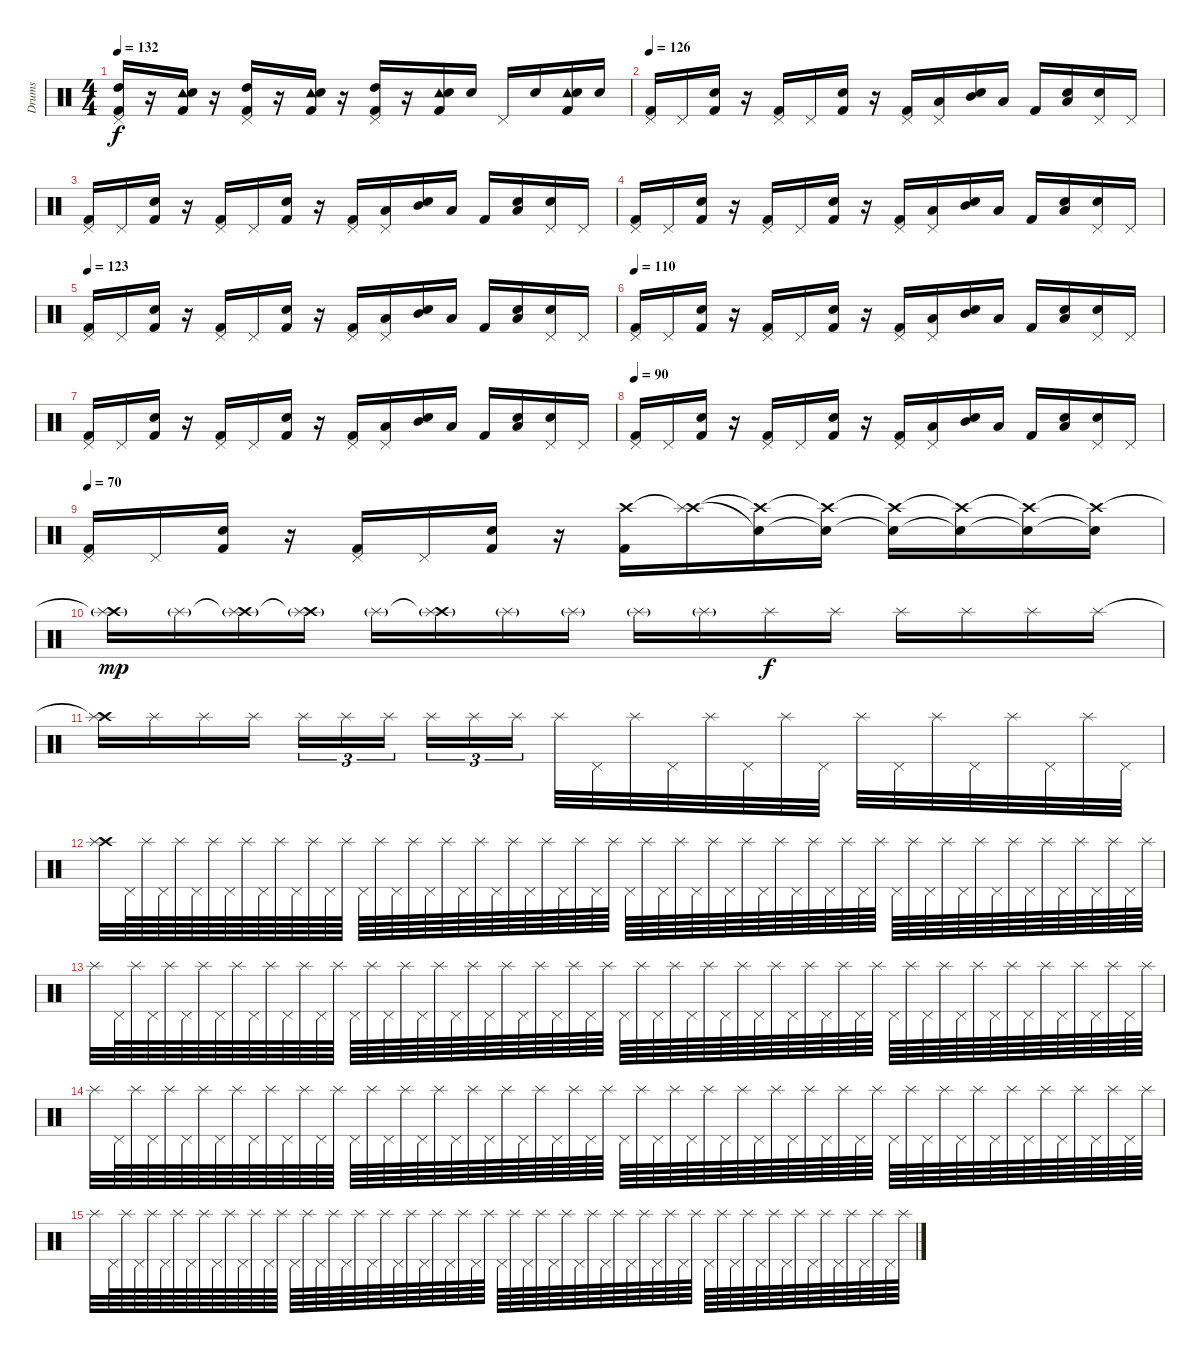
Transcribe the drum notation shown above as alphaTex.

\track ("Drums" "Drums") {instrument percussion}
\staff {score}
\articulation defaults
\ts (4 4)
\tempo 132
\clef neutral
\ks c
("Pedal Hi-Hat (hit)" "Kick (hit) 2" "High Tom (hit)").16{dy f} r.16 ("Tambourine (hit)" "Kick (hit) 2" "Snare (hit) 2").16 r.16 ("Pedal Hi-Hat (hit)" "Kick (hit) 2" "High Tom (hit)").16 r.16 ("Tambourine (hit)" "Kick (hit) 2" "Snare (hit) 2").16 r.16 ("Pedal Hi-Hat (hit)" "Kick (hit) 2" "High Tom (hit)").16 r.16 ("Tambourine (hit)" "Kick (hit) 2" "Snare (hit) 2").16 "Snare (hit) 2".16 "Pedal Hi-Hat (hit)".16 "Snare (hit) 2".16 ("Tambourine (hit)" "Kick (hit) 2" "Snare (hit) 2").16 "Snare (hit) 2".16 |
\tempo 126
("Pedal Hi-Hat (hit)" "Kick (hit) 2").16 "Pedal Hi-Hat (hit)".16 ("Snare (hit) 2" "Kick (hit) 2").16 r.16 ("Pedal Hi-Hat (hit)" "Kick (hit) 2").16 "Pedal Hi-Hat (hit)".16 ("Snare (hit) 2" "Kick (hit) 2").16 r.16 ("Pedal Hi-Hat (hit)" "Kick (hit) 2").16 ("Pedal Hi-Hat (hit)" "Low Tom (hit)").16 ("Snare (hit) 2" "Mid Tom (hit)").16 "Low Tom (hit)".16 "Kick (hit) 2".16 ("Snare (hit) 2" "Low Tom (hit)").16 ("Pedal Hi-Hat (hit)" "Snare (hit) 2").16 "Pedal Hi-Hat (hit)".16 |
("Pedal Hi-Hat (hit)" "Kick (hit) 2").16 "Pedal Hi-Hat (hit)".16 ("Snare (hit) 2" "Kick (hit) 2").16 r.16 ("Pedal Hi-Hat (hit)" "Kick (hit) 2").16 "Pedal Hi-Hat (hit)".16 ("Snare (hit) 2" "Kick (hit) 2").16 r.16 ("Pedal Hi-Hat (hit)" "Kick (hit) 2").16 ("Pedal Hi-Hat (hit)" "Low Tom (hit)").16 ("Snare (hit) 2" "Mid Tom (hit)").16 "Low Tom (hit)".16 "Kick (hit) 2".16 ("Snare (hit) 2" "Low Tom (hit)").16 ("Pedal Hi-Hat (hit)" "Snare (hit) 2").16 "Pedal Hi-Hat (hit)".16 |
("Pedal Hi-Hat (hit)" "Kick (hit) 2").16 "Pedal Hi-Hat (hit)".16 ("Snare (hit) 2" "Kick (hit) 2").16 r.16 ("Pedal Hi-Hat (hit)" "Kick (hit) 2").16 "Pedal Hi-Hat (hit)".16 ("Snare (hit) 2" "Kick (hit) 2").16 r.16 ("Pedal Hi-Hat (hit)" "Kick (hit) 2").16 ("Pedal Hi-Hat (hit)" "Low Tom (hit)").16 ("Snare (hit) 2" "Mid Tom (hit)").16 "Low Tom (hit)".16 "Kick (hit) 2".16 ("Snare (hit) 2" "Low Tom (hit)").16 ("Pedal Hi-Hat (hit)" "Snare (hit) 2").16 "Pedal Hi-Hat (hit)".16 |
\tempo 123
("Pedal Hi-Hat (hit)" "Kick (hit) 2").16 "Pedal Hi-Hat (hit)".16 ("Snare (hit) 2" "Kick (hit) 2").16 r.16 ("Pedal Hi-Hat (hit)" "Kick (hit) 2").16 "Pedal Hi-Hat (hit)".16 ("Snare (hit) 2" "Kick (hit) 2").16 r.16 ("Pedal Hi-Hat (hit)" "Kick (hit) 2").16 ("Pedal Hi-Hat (hit)" "Low Tom (hit)").16 ("Snare (hit) 2" "Mid Tom (hit)").16 "Low Tom (hit)".16 "Kick (hit) 2".16 ("Snare (hit) 2" "Low Tom (hit)").16 ("Pedal Hi-Hat (hit)" "Snare (hit) 2").16 "Pedal Hi-Hat (hit)".16 |
\tempo 110
("Pedal Hi-Hat (hit)" "Kick (hit) 2").16 "Pedal Hi-Hat (hit)".16 ("Snare (hit) 2" "Kick (hit) 2").16 r.16 ("Pedal Hi-Hat (hit)" "Kick (hit) 2").16 "Pedal Hi-Hat (hit)".16 ("Snare (hit) 2" "Kick (hit) 2").16 r.16 ("Pedal Hi-Hat (hit)" "Kick (hit) 2").16 ("Pedal Hi-Hat (hit)" "Low Tom (hit)").16 ("Snare (hit) 2" "Mid Tom (hit)").16 "Low Tom (hit)".16 "Kick (hit) 2".16 ("Snare (hit) 2" "Low Tom (hit)").16 ("Pedal Hi-Hat (hit)" "Snare (hit) 2").16 "Pedal Hi-Hat (hit)".16 |
("Pedal Hi-Hat (hit)" "Kick (hit) 2").16 "Pedal Hi-Hat (hit)".16 ("Snare (hit) 2" "Kick (hit) 2").16 r.16 ("Pedal Hi-Hat (hit)" "Kick (hit) 2").16 "Pedal Hi-Hat (hit)".16 ("Snare (hit) 2" "Kick (hit) 2").16 r.16 ("Pedal Hi-Hat (hit)" "Kick (hit) 2").16 ("Pedal Hi-Hat (hit)" "Low Tom (hit)").16 ("Snare (hit) 2" "Mid Tom (hit)").16 "Low Tom (hit)".16 "Kick (hit) 2".16 ("Snare (hit) 2" "Low Tom (hit)").16 ("Pedal Hi-Hat (hit)" "Snare (hit) 2").16 "Pedal Hi-Hat (hit)".16 |
\tempo 90
("Pedal Hi-Hat (hit)" "Kick (hit) 2").16 "Pedal Hi-Hat (hit)".16 ("Snare (hit) 2" "Kick (hit) 2").16 r.16 ("Pedal Hi-Hat (hit)" "Kick (hit) 2").16 "Pedal Hi-Hat (hit)".16 ("Snare (hit) 2" "Kick (hit) 2").16 r.16 ("Pedal Hi-Hat (hit)" "Kick (hit) 2").16 ("Pedal Hi-Hat (hit)" "Low Tom (hit)").16 ("Snare (hit) 2" "Mid Tom (hit)").16 "Low Tom (hit)".16 "Kick (hit) 2".16 ("Snare (hit) 2" "Low Tom (hit)").16 ("Pedal Hi-Hat (hit)" "Snare (hit) 2").16 "Pedal Hi-Hat (hit)".16 |
\tempo 70
("Pedal Hi-Hat (hit)" "Kick (hit) 2").16 "Pedal Hi-Hat (hit)".16 ("Snare (hit) 2" "Kick (hit) 2").16 r.16 ("Pedal Hi-Hat (hit)" "Kick (hit) 2").16 "Pedal Hi-Hat (hit)".16 ("Snare (hit) 2" "Kick (hit) 2").16 r.16 ("Crash high (hit)" "Kick (hit) 2").16 ("Crash high (hit)"{t} "Splash (hit)").16 ("Crash high (hit)"{t} "Snare (hit)"{t}).16 ("Crash high (hit)"{t} "Snare (hit)"{t}).16 ("Crash high (hit)"{t} "Snare (hit)"{t}).16 ("Crash high (hit)"{t} "Snare (hit)"{t}).16 ("Crash high (hit)"{t} "Snare (hit)"{t}).16 ("Crash high (hit)"{t} "Snare (hit)"{t}).16 |
("Crash high (hit)"{t} "Splash (hit)"{g}).16{dy mp} "Splash (hit)"{g}.16 ("Crash high (hit)"{t} "Splash (hit)"{g}).16 ("Crash high (hit)"{t} "Splash (hit)"{g}).16 "Splash (hit)"{g}.16 ("Crash high (hit)"{t} "Splash (hit)"{g}).16 "Splash (hit)"{g}.16 "Splash (hit)"{g}.16 "Splash (hit)"{g}.16 "Splash (hit)"{g}.16 "Splash (hit)".16{dy f} "Splash (hit)".16 "Splash (hit)".16 "Splash (hit)".16 "Splash (hit)".16 "Splash (hit)".16 |
("Crash high (hit)"{t} "Splash (hit)").16 "Splash (hit)".16 "Splash (hit)".16 "Splash (hit)".16 "Splash (hit)".16{tu (3 2)} "Splash (hit)".16{tu (3 2)} "Splash (hit)".16{tu (3 2)} "Splash (hit)".16{tu (3 2)} "Splash (hit)".16{tu (3 2)} "Splash (hit)".16{tu (3 2)} "Splash (hit)".32 "Pedal Hi-Hat (hit)".32 "Splash (hit)".32 "Pedal Hi-Hat (hit)".32 "Splash (hit)".32 "Pedal Hi-Hat (hit)".32 "Splash (hit)".32 "Pedal Hi-Hat (hit)".32 "Splash (hit)".32 "Pedal Hi-Hat (hit)".32 "Splash (hit)".32 "Pedal Hi-Hat (hit)".32 "Splash (hit)".32 "Pedal Hi-Hat (hit)".32 "Splash (hit)".32 "Pedal Hi-Hat (hit)".32 |
("Crash high (hit)" "Splash (hit)").32{volume 16} "Pedal Hi-Hat (hit)".64 "Splash (hit)".64 "Pedal Hi-Hat (hit)".64 "Splash (hit)".64 "Pedal Hi-Hat (hit)".64 "Splash (hit)".64 "Pedal Hi-Hat (hit)".64 "Splash (hit)".64 "Pedal Hi-Hat (hit)".64 "Splash (hit)".64 "Pedal Hi-Hat (hit)".64 "Splash (hit)".64 "Pedal Hi-Hat (hit)".64 "Splash (hit)".64 "Pedal Hi-Hat (hit)".64 "Splash (hit)".64 "Pedal Hi-Hat (hit)".64 "Splash (hit)".64 "Pedal Hi-Hat (hit)".64 "Splash (hit)".64 "Pedal Hi-Hat (hit)".64 "Splash (hit)".64 "Pedal Hi-Hat (hit)".64 "Splash (hit)".64 "Pedal Hi-Hat (hit)".64 "Splash (hit)".64 "Pedal Hi-Hat (hit)".64 "Splash (hit)".64 "Pedal Hi-Hat (hit)".64 "Splash (hit)".64 "Pedal Hi-Hat (hit)".64 "Splash (hit)".64 "Pedal Hi-Hat (hit)".64 "Splash (hit)".64 "Pedal Hi-Hat (hit)".64 "Splash (hit)".64 "Pedal Hi-Hat (hit)".64 "Splash (hit)".64 "Pedal Hi-Hat (hit)".64 "Splash (hit)".64 "Pedal Hi-Hat (hit)".64 "Splash (hit)".64 "Pedal Hi-Hat (hit)".64 "Splash (hit)".64 "Pedal Hi-Hat (hit)".64 "Splash (hit)".64 "Pedal Hi-Hat (hit)".64 "Splash (hit)".64 "Pedal Hi-Hat (hit)".64 "Splash (hit)".64 "Pedal Hi-Hat (hit)".64 "Splash (hit)".64 "Pedal Hi-Hat (hit)".64 "Splash (hit)".64 "Pedal Hi-Hat (hit)".64 "Splash (hit)".64 "Pedal Hi-Hat (hit)".64 "Splash (hit)".64 "Pedal Hi-Hat (hit)".64 "Splash (hit)".64 "Pedal Hi-Hat (hit)".64 "Splash (hit)".64 |
"Splash (hit)".32 "Pedal Hi-Hat (hit)".64 "Splash (hit)".64 "Pedal Hi-Hat (hit)".64 "Splash (hit)".64 "Pedal Hi-Hat (hit)".64 "Splash (hit)".64 "Pedal Hi-Hat (hit)".64 "Splash (hit)".64 "Pedal Hi-Hat (hit)".64 "Splash (hit)".64 "Pedal Hi-Hat (hit)".64 "Splash (hit)".64 "Pedal Hi-Hat (hit)".64 "Splash (hit)".64 "Pedal Hi-Hat (hit)".64 "Splash (hit)".64 "Pedal Hi-Hat (hit)".64 "Splash (hit)".64 "Pedal Hi-Hat (hit)".64 "Splash (hit)".64 "Pedal Hi-Hat (hit)".64 "Splash (hit)".64 "Pedal Hi-Hat (hit)".64 "Splash (hit)".64 "Pedal Hi-Hat (hit)".64 "Splash (hit)".64 "Pedal Hi-Hat (hit)".64 "Splash (hit)".64 "Pedal Hi-Hat (hit)".64 "Splash (hit)".64 "Pedal Hi-Hat (hit)".64 "Splash (hit)".64 "Pedal Hi-Hat (hit)".64 "Splash (hit)".64 "Pedal Hi-Hat (hit)".64 "Splash (hit)".64 "Pedal Hi-Hat (hit)".64 "Splash (hit)".64 "Pedal Hi-Hat (hit)".64 "Splash (hit)".64 "Pedal Hi-Hat (hit)".64 "Splash (hit)".64 "Pedal Hi-Hat (hit)".64 "Splash (hit)".64 "Pedal Hi-Hat (hit)".64 "Splash (hit)".64 "Pedal Hi-Hat (hit)".64 "Splash (hit)".64 "Pedal Hi-Hat (hit)".64 "Splash (hit)".64 "Pedal Hi-Hat (hit)".64 "Splash (hit)".64 "Pedal Hi-Hat (hit)".64 "Splash (hit)".64 "Pedal Hi-Hat (hit)".64 "Splash (hit)".64 "Pedal Hi-Hat (hit)".64 "Splash (hit)".64 "Pedal Hi-Hat (hit)".64 "Splash (hit)".64 "Pedal Hi-Hat (hit)".64 "Splash (hit)".64 |
"Splash (hit)".32{volume 0} "Pedal Hi-Hat (hit)".64 "Splash (hit)".64 "Pedal Hi-Hat (hit)".64 "Splash (hit)".64 "Pedal Hi-Hat (hit)".64 "Splash (hit)".64 "Pedal Hi-Hat (hit)".64 "Splash (hit)".64 "Pedal Hi-Hat (hit)".64 "Splash (hit)".64 "Pedal Hi-Hat (hit)".64 "Splash (hit)".64 "Pedal Hi-Hat (hit)".64 "Splash (hit)".64 "Pedal Hi-Hat (hit)".64 "Splash (hit)".64 "Pedal Hi-Hat (hit)".64 "Splash (hit)".64 "Pedal Hi-Hat (hit)".64 "Splash (hit)".64 "Pedal Hi-Hat (hit)".64 "Splash (hit)".64 "Pedal Hi-Hat (hit)".64 "Splash (hit)".64 "Pedal Hi-Hat (hit)".64 "Splash (hit)".64 "Pedal Hi-Hat (hit)".64 "Splash (hit)".64 "Pedal Hi-Hat (hit)".64 "Splash (hit)".64 "Pedal Hi-Hat (hit)".64 "Splash (hit)".64 "Pedal Hi-Hat (hit)".64 "Splash (hit)".64 "Pedal Hi-Hat (hit)".64 "Splash (hit)".64 "Pedal Hi-Hat (hit)".64 "Splash (hit)".64 "Pedal Hi-Hat (hit)".64 "Splash (hit)".64 "Pedal Hi-Hat (hit)".64 "Splash (hit)".64 "Pedal Hi-Hat (hit)".64 "Splash (hit)".64 "Pedal Hi-Hat (hit)".64 "Splash (hit)".64 "Pedal Hi-Hat (hit)".64 "Splash (hit)".64 "Pedal Hi-Hat (hit)".64 "Splash (hit)".64 "Pedal Hi-Hat (hit)".64 "Splash (hit)".64 "Pedal Hi-Hat (hit)".64 "Splash (hit)".64 "Pedal Hi-Hat (hit)".64 "Splash (hit)".64 "Pedal Hi-Hat (hit)".64 "Splash (hit)".64 "Pedal Hi-Hat (hit)".64 "Splash (hit)".64 "Pedal Hi-Hat (hit)".64 "Splash (hit)".64 |
"Splash (hit)".32 "Pedal Hi-Hat (hit)".64 "Splash (hit)".64 "Pedal Hi-Hat (hit)".64 "Splash (hit)".64 "Pedal Hi-Hat (hit)".64 "Splash (hit)".64 "Pedal Hi-Hat (hit)".64 "Splash (hit)".64 "Pedal Hi-Hat (hit)".64 "Splash (hit)".64 "Pedal Hi-Hat (hit)".64 "Splash (hit)".64 "Pedal Hi-Hat (hit)".64 "Splash (hit)".64 "Pedal Hi-Hat (hit)".64 "Splash (hit)".64 "Pedal Hi-Hat (hit)".64 "Splash (hit)".64 "Pedal Hi-Hat (hit)".64 "Splash (hit)".64 "Pedal Hi-Hat (hit)".64 "Splash (hit)".64 "Pedal Hi-Hat (hit)".64 "Splash (hit)".64 "Pedal Hi-Hat (hit)".64 "Splash (hit)".64 "Pedal Hi-Hat (hit)".64 "Splash (hit)".64 "Pedal Hi-Hat (hit)".64 "Splash (hit)".64 "Pedal Hi-Hat (hit)".64 "Splash (hit)".64 "Pedal Hi-Hat (hit)".64 "Splash (hit)".64 "Pedal Hi-Hat (hit)".64 "Splash (hit)".64 "Pedal Hi-Hat (hit)".64 "Splash (hit)".64 "Pedal Hi-Hat (hit)".64 "Splash (hit)".64 "Pedal Hi-Hat (hit)".64 "Splash (hit)".64 "Pedal Hi-Hat (hit)".64 "Splash (hit)".64 "Pedal Hi-Hat (hit)".64 "Splash (hit)".64 "Pedal Hi-Hat (hit)".64 "Splash (hit)".64 "Pedal Hi-Hat (hit)".64 "Splash (hit)".64 "Pedal Hi-Hat (hit)".64 "Splash (hit)".64 "Pedal Hi-Hat (hit)".64 "Splash (hit)".64 "Pedal Hi-Hat (hit)".64 "Splash (hit)".64 "Pedal Hi-Hat (hit)".64 "Splash (hit)".64 "Pedal Hi-Hat (hit)".64 "Splash (hit)".64 "Pedal Hi-Hat (hit)".64 "Splash (hit)".64
